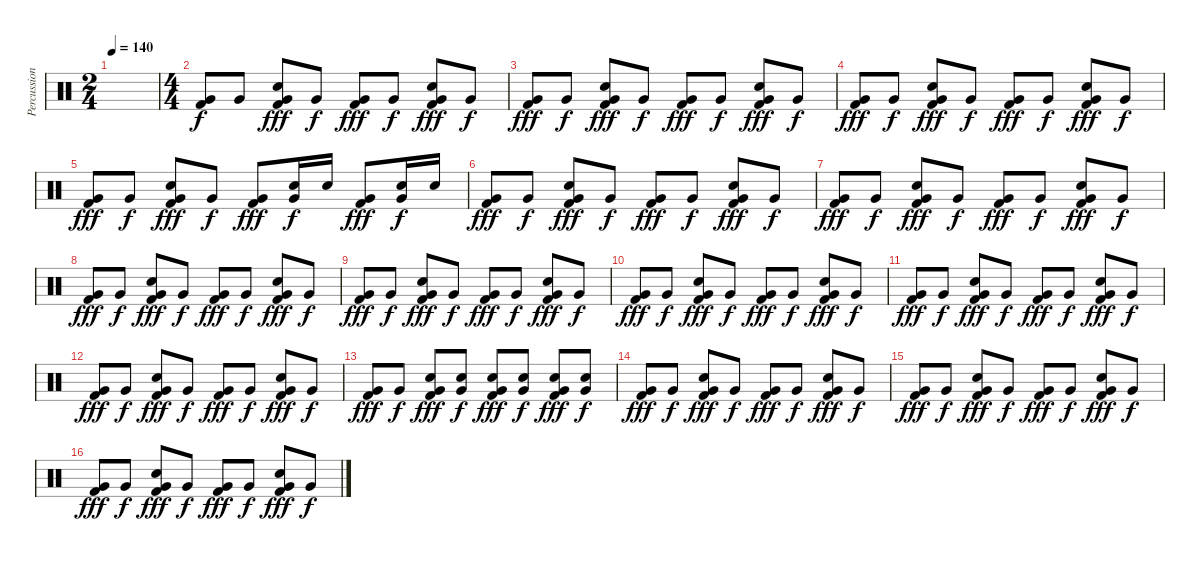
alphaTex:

\track ("Percussion" "Percussion") {instrument percussion}
\staff {score}
\articulation defaults
\ts (2 4)
\tempo 140
\clef neutral
\ks c
|
\ts (4 4)
("Very Low Tom (hit)" "Kick (hit) 2").8 "Very Low Tom (hit)".8{dy f} ("Very Low Tom (hit)" "Snare (hit) 2" "Kick (hit) 2").8{dy fff} "Very Low Tom (hit)".8{dy f} ("Very Low Tom (hit)" "Kick (hit) 2").8{dy fff} "Very Low Tom (hit)".8{dy f} ("Very Low Tom (hit)" "Snare (hit) 2" "Kick (hit) 2").8{dy fff} "Very Low Tom (hit)".8{dy f} |
("Very Low Tom (hit)" "Kick (hit) 2").8{dy fff} "Very Low Tom (hit)".8{dy f} ("Very Low Tom (hit)" "Snare (hit) 2" "Kick (hit) 2").8{dy fff} "Very Low Tom (hit)".8{dy f} ("Very Low Tom (hit)" "Kick (hit) 2").8{dy fff} "Very Low Tom (hit)".8{dy f} ("Very Low Tom (hit)" "Snare (hit) 2" "Kick (hit) 2").8{dy fff} "Very Low Tom (hit)".8{dy f} |
("Very Low Tom (hit)" "Kick (hit) 2").8{dy fff} "Very Low Tom (hit)".8{dy f} ("Very Low Tom (hit)" "Snare (hit) 2" "Kick (hit) 2").8{dy fff} "Very Low Tom (hit)".8{dy f} ("Very Low Tom (hit)" "Kick (hit) 2").8{dy fff} "Very Low Tom (hit)".8{dy f} ("Very Low Tom (hit)" "Snare (hit) 2" "Kick (hit) 2").8{dy fff} "Very Low Tom (hit)".8{dy f} |
("Very Low Tom (hit)" "Kick (hit) 2").8{dy fff} "Very Low Tom (hit)".8{dy f} ("Very Low Tom (hit)" "Snare (hit) 2" "Kick (hit) 2").8{dy fff} "Very Low Tom (hit)".8{dy f} ("Very Low Tom (hit)" "Kick (hit) 2").8{dy fff} ("Very Low Tom (hit)" "Snare (hit) 2").16{dy f} "Snare (hit) 2".16 ("Very Low Tom (hit)" "Kick (hit) 2").8{dy fff} ("Very Low Tom (hit)" "Snare (hit) 2").16{dy f} "Snare (hit) 2".16 |
("Very Low Tom (hit)" "Kick (hit) 2").8{dy fff} "Very Low Tom (hit)".8{dy f} ("Very Low Tom (hit)" "Snare (hit) 2" "Kick (hit) 2").8{dy fff} "Very Low Tom (hit)".8{dy f} ("Very Low Tom (hit)" "Kick (hit) 2").8{dy fff} "Very Low Tom (hit)".8{dy f} ("Very Low Tom (hit)" "Snare (hit) 2" "Kick (hit) 2").8{dy fff} "Very Low Tom (hit)".8{dy f} |
("Very Low Tom (hit)" "Kick (hit) 2").8{dy fff} "Very Low Tom (hit)".8{dy f} ("Very Low Tom (hit)" "Snare (hit) 2" "Kick (hit) 2").8{dy fff} "Very Low Tom (hit)".8{dy f} ("Very Low Tom (hit)" "Kick (hit) 2").8{dy fff} "Very Low Tom (hit)".8{dy f} ("Very Low Tom (hit)" "Snare (hit) 2" "Kick (hit) 2").8{dy fff} "Very Low Tom (hit)".8{dy f} |
("Very Low Tom (hit)" "Kick (hit) 2").8{dy fff} "Very Low Tom (hit)".8{dy f} ("Very Low Tom (hit)" "Snare (hit) 2" "Kick (hit) 2").8{dy fff} "Very Low Tom (hit)".8{dy f} ("Very Low Tom (hit)" "Kick (hit) 2").8{dy fff} "Very Low Tom (hit)".8{dy f} ("Very Low Tom (hit)" "Snare (hit) 2" "Kick (hit) 2").8{dy fff} "Very Low Tom (hit)".8{dy f} |
("Very Low Tom (hit)" "Kick (hit) 2").8{dy fff} "Very Low Tom (hit)".8{dy f} ("Very Low Tom (hit)" "Snare (hit) 2" "Kick (hit) 2").8{dy fff} "Very Low Tom (hit)".8{dy f} ("Very Low Tom (hit)" "Kick (hit) 2").8{dy fff} "Very Low Tom (hit)".8{dy f} ("Very Low Tom (hit)" "Snare (hit) 2" "Kick (hit) 2").8{dy fff} "Very Low Tom (hit)".8{dy f} |
("Very Low Tom (hit)" "Kick (hit) 2").8{dy fff} "Very Low Tom (hit)".8{dy f} ("Very Low Tom (hit)" "Snare (hit) 2" "Kick (hit) 2").8{dy fff} "Very Low Tom (hit)".8{dy f} ("Very Low Tom (hit)" "Kick (hit) 2").8{dy fff} "Very Low Tom (hit)".8{dy f} ("Very Low Tom (hit)" "Snare (hit) 2" "Kick (hit) 2").8{dy fff} "Very Low Tom (hit)".8{dy f} |
("Very Low Tom (hit)" "Kick (hit) 2").8{dy fff} "Very Low Tom (hit)".8{dy f} ("Very Low Tom (hit)" "Snare (hit) 2" "Kick (hit) 2").8{dy fff} "Very Low Tom (hit)".8{dy f} ("Very Low Tom (hit)" "Kick (hit) 2").8{dy fff} "Very Low Tom (hit)".8{dy f} ("Very Low Tom (hit)" "Snare (hit) 2" "Kick (hit) 2").8{dy fff} "Very Low Tom (hit)".8{dy f} |
("Very Low Tom (hit)" "Kick (hit) 2").8{dy fff} "Very Low Tom (hit)".8{dy f} ("Very Low Tom (hit)" "Snare (hit) 2" "Kick (hit) 2").8{dy fff} "Very Low Tom (hit)".8{dy f} ("Very Low Tom (hit)" "Kick (hit) 2").8{dy fff} "Very Low Tom (hit)".8{dy f} ("Very Low Tom (hit)" "Snare (hit) 2" "Kick (hit) 2").8{dy fff} "Very Low Tom (hit)".8{dy f} |
("Very Low Tom (hit)" "Kick (hit) 2").8{dy fff} "Very Low Tom (hit)".8{dy f} ("Very Low Tom (hit)" "Snare (hit) 2" "Kick (hit) 2").8{dy fff} ("Very Low Tom (hit)" "Snare (hit) 2").8{dy f} ("Very Low Tom (hit)" "Snare (hit) 2" "Kick (hit) 2").8{dy fff} ("Very Low Tom (hit)" "Snare (hit) 2").8{dy f} ("Very Low Tom (hit)" "Snare (hit) 2" "Kick (hit) 2").8{dy fff} ("Very Low Tom (hit)" "Snare (hit) 2").8{dy f} |
("Very Low Tom (hit)" "Kick (hit) 2").8{dy fff} "Very Low Tom (hit)".8{dy f} ("Very Low Tom (hit)" "Snare (hit) 2" "Kick (hit) 2").8{dy fff} "Very Low Tom (hit)".8{dy f} ("Very Low Tom (hit)" "Kick (hit) 2").8{dy fff} "Very Low Tom (hit)".8{dy f} ("Very Low Tom (hit)" "Snare (hit) 2" "Kick (hit) 2").8{dy fff} "Very Low Tom (hit)".8{dy f} |
("Very Low Tom (hit)" "Kick (hit) 2").8{dy fff} "Very Low Tom (hit)".8{dy f} ("Very Low Tom (hit)" "Snare (hit) 2" "Kick (hit) 2").8{dy fff} "Very Low Tom (hit)".8{dy f} ("Very Low Tom (hit)" "Kick (hit) 2").8{dy fff} "Very Low Tom (hit)".8{dy f} ("Very Low Tom (hit)" "Snare (hit) 2" "Kick (hit) 2").8{dy fff} "Very Low Tom (hit)".8{dy f} |
("Very Low Tom (hit)" "Kick (hit) 2").8{dy fff} "Very Low Tom (hit)".8{dy f} ("Very Low Tom (hit)" "Snare (hit) 2" "Kick (hit) 2").8{dy fff} "Very Low Tom (hit)".8{dy f} ("Very Low Tom (hit)" "Kick (hit) 2").8{dy fff} "Very Low Tom (hit)".8{dy f} ("Very Low Tom (hit)" "Snare (hit) 2" "Kick (hit) 2").8{dy fff} "Very Low Tom (hit)".8{dy f}
